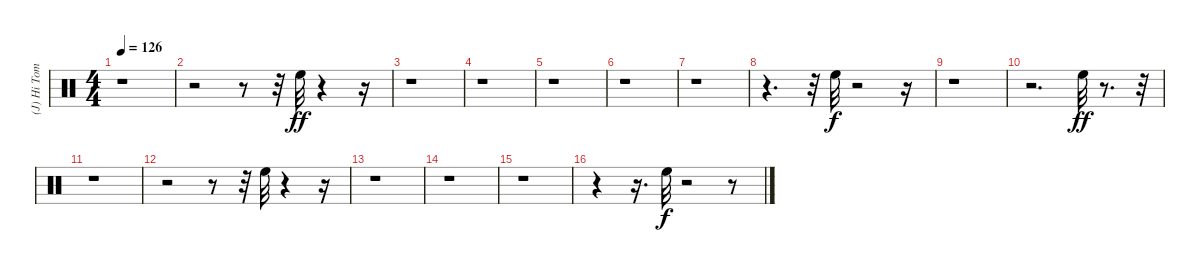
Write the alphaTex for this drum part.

\track ("(J) Hi Tom" "(J) Hi Tom") {instrument percussion}
\staff {score}
\articulation defaults
\ts (4 4)
\tempo 126
\clef neutral
\ks c
r.1{dy ff} |
r.2 r.8 r.32 "High Floor Tom (hit)".32 r.4 r.16 |
r.1 |
r.1 |
r.1 |
r.1 |
r.1 |
r.4{d} r.32 "High Floor Tom (hit)".32{dy f} r.2 r.16 |
r.1 |
r.2{d} "High Floor Tom (hit)".32{dy ff} r.8{d} r.32 |
r.1 |
r.2 r.8 r.32 "High Floor Tom (hit)".32 r.4 r.16 |
r.1 |
r.1 |
r.1 |
r.4 r.16{d} "High Floor Tom (hit)".32{dy f} r.2 r.8
